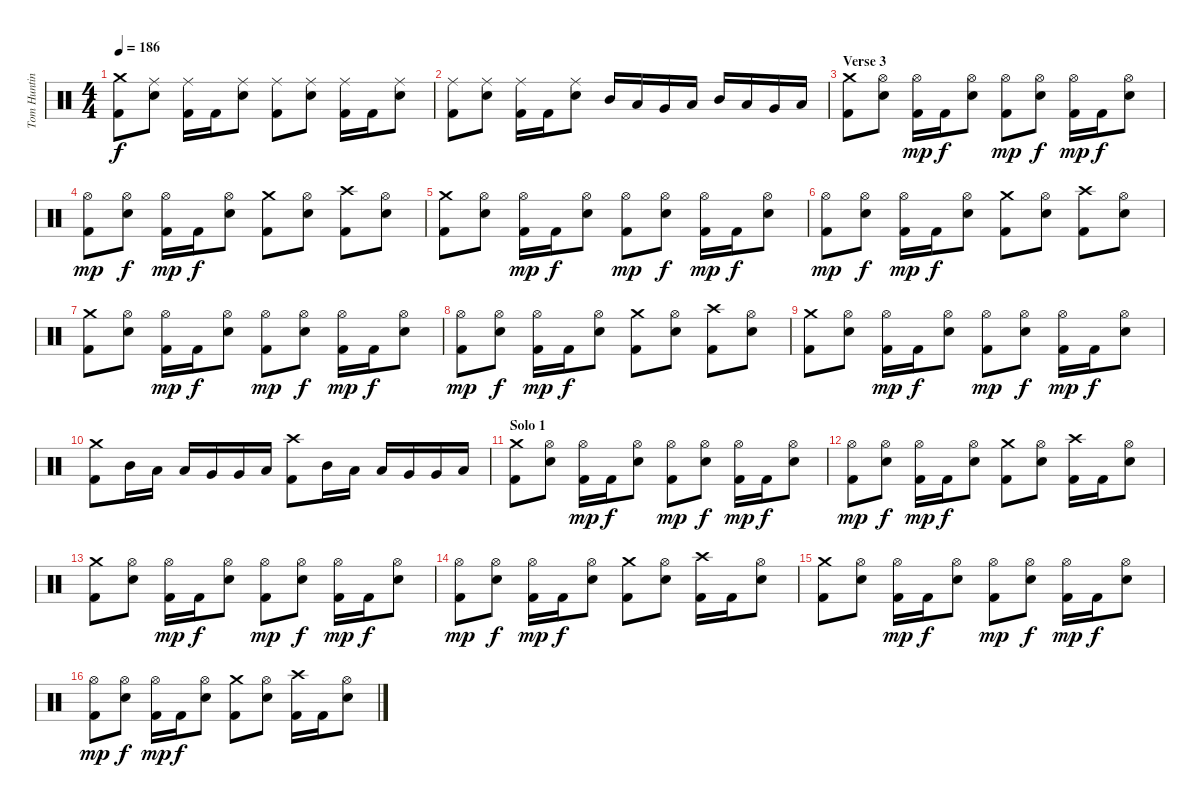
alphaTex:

\track ("Tom Hunting" "Tom Huntin") {instrument percussion}
\staff {score}
\articulation defaults
\ts (4 4)
\tempo 186
\clef neutral
\ks c
("Kick (hit) 2" "Crash medium (hit)").8{dy f} ("Ride (middle)" "Snare (hit) 2").8 ("Kick (hit) 2" "Ride (middle)").16 "Kick (hit) 2".16 ("Ride (middle)" "Snare (hit) 2").8 ("Kick (hit) 2" "Ride (middle)").8 ("Ride (middle)" "Snare (hit) 2").8 ("Kick (hit) 2" "Ride (middle)").16 "Kick (hit) 2".16 ("Ride (middle)" "Snare (hit) 2").8 |
("Kick (hit) 2" "Ride (middle)").8 ("Ride (middle)" "Snare (hit) 2").8 ("Kick (hit) 2" "Ride (middle)").16 "Kick (hit) 2".16 ("Ride (middle)" "Snare (hit) 2").8 "Mid Tom (hit)".16 "Low Tom (hit)".16 "Very Low Tom (hit)".16 "Low Floor Tom (hit)".16 "Mid Tom (hit)".16 "Low Tom (hit)".16 "Very Low Tom (hit)".16 "Low Floor Tom (hit)".16 |
\section ("" "Verse 3")
("Kick (hit) 2" "Crash medium (hit)").8 ("Hi-Hat (open)" "Snare (hit) 2").8 ("Kick (hit) 2" "Hi-Hat (open)").16{dy mp} "Kick (hit) 2".16{dy f} ("Hi-Hat (open)" "Snare (hit) 2").8 ("Kick (hit) 2" "Hi-Hat (open)").8{dy mp} ("Hi-Hat (open)" "Snare (hit) 2").8{dy f} ("Kick (hit) 2" "Hi-Hat (open)").16{dy mp} "Kick (hit) 2".16{dy f} ("Hi-Hat (open)" "Snare (hit) 2").8 |
("Kick (hit) 2" "Hi-Hat (open)").8{dy mp} ("Hi-Hat (open)" "Snare (hit) 2").8{dy f} ("Kick (hit) 2" "Hi-Hat (open)").16{dy mp} "Kick (hit) 2".16{dy f} ("Hi-Hat (open)" "Snare (hit) 2").8 ("Kick (hit) 2" "Crash medium (hit)").8 ("Hi-Hat (open)" "Snare (hit) 2").8 ("Kick (hit) 2" "Crash high (hit)").8 ("Hi-Hat (open)" "Snare (hit) 2").8 |
("Kick (hit) 2" "Crash medium (hit)").8 ("Hi-Hat (open)" "Snare (hit) 2").8 ("Kick (hit) 2" "Hi-Hat (open)").16{dy mp} "Kick (hit) 2".16{dy f} ("Hi-Hat (open)" "Snare (hit) 2").8 ("Kick (hit) 2" "Hi-Hat (open)").8{dy mp} ("Hi-Hat (open)" "Snare (hit) 2").8{dy f} ("Kick (hit) 2" "Hi-Hat (open)").16{dy mp} "Kick (hit) 2".16{dy f} ("Hi-Hat (open)" "Snare (hit) 2").8 |
("Kick (hit) 2" "Hi-Hat (open)").8{dy mp} ("Hi-Hat (open)" "Snare (hit) 2").8{dy f} ("Kick (hit) 2" "Hi-Hat (open)").16{dy mp} "Kick (hit) 2".16{dy f} ("Hi-Hat (open)" "Snare (hit) 2").8 ("Kick (hit) 2" "Crash medium (hit)").8 ("Hi-Hat (open)" "Snare (hit) 2").8 ("Kick (hit) 2" "Crash high (hit)").8 ("Hi-Hat (open)" "Snare (hit) 2").8 |
("Kick (hit) 2" "Crash medium (hit)").8 ("Hi-Hat (open)" "Snare (hit) 2").8 ("Kick (hit) 2" "Hi-Hat (open)").16{dy mp} "Kick (hit) 2".16{dy f} ("Hi-Hat (open)" "Snare (hit) 2").8 ("Kick (hit) 2" "Hi-Hat (open)").8{dy mp} ("Hi-Hat (open)" "Snare (hit) 2").8{dy f} ("Kick (hit) 2" "Hi-Hat (open)").16{dy mp} "Kick (hit) 2".16{dy f} ("Hi-Hat (open)" "Snare (hit) 2").8 |
("Kick (hit) 2" "Hi-Hat (open)").8{dy mp} ("Hi-Hat (open)" "Snare (hit) 2").8{dy f} ("Kick (hit) 2" "Hi-Hat (open)").16{dy mp} "Kick (hit) 2".16{dy f} ("Hi-Hat (open)" "Snare (hit) 2").8 ("Kick (hit) 2" "Crash medium (hit)").8 ("Hi-Hat (open)" "Snare (hit) 2").8 ("Kick (hit) 2" "Crash high (hit)").8 ("Hi-Hat (open)" "Snare (hit) 2").8 |
("Kick (hit) 2" "Crash medium (hit)").8 ("Hi-Hat (open)" "Snare (hit) 2").8 ("Kick (hit) 2" "Hi-Hat (open)").16{dy mp} "Kick (hit) 2".16{dy f} ("Hi-Hat (open)" "Snare (hit) 2").8 ("Kick (hit) 2" "Hi-Hat (open)").8{dy mp} ("Hi-Hat (open)" "Snare (hit) 2").8{dy f} ("Kick (hit) 2" "Hi-Hat (open)").16{dy mp} "Kick (hit) 2".16{dy f} ("Hi-Hat (open)" "Snare (hit) 2").8 |
("Kick (hit) 2" "Crash medium (hit)").8 "Mid Tom (hit)".16 "Low Tom (hit)".16 "Low Tom (hit)".16 "Very Low Tom (hit)".16 "Very Low Tom (hit)".16 "Low Floor Tom (hit)".16 ("Kick (hit) 2" "Crash high (hit)").8 "Mid Tom (hit)".16 "Low Tom (hit)".16 "Low Tom (hit)".16 "Very Low Tom (hit)".16 "Very Low Tom (hit)".16 "Low Floor Tom (hit)".16 |
\section ("" "Solo 1")
("Kick (hit) 2" "Crash medium (hit)").8 ("Hi-Hat (open)" "Snare (hit) 2").8 ("Kick (hit) 2" "Hi-Hat (open)").16{dy mp} "Kick (hit) 2".16{dy f} ("Hi-Hat (open)" "Snare (hit) 2").8 ("Kick (hit) 2" "Hi-Hat (open)").8{dy mp} ("Hi-Hat (open)" "Snare (hit) 2").8{dy f} ("Kick (hit) 2" "Hi-Hat (open)").16{dy mp} "Kick (hit) 2".16{dy f} ("Hi-Hat (open)" "Snare (hit) 2").8 |
("Kick (hit) 2" "Hi-Hat (open)").8{dy mp} ("Hi-Hat (open)" "Snare (hit) 2").8{dy f} ("Kick (hit) 2" "Hi-Hat (open)").16{dy mp} "Kick (hit) 2".16{dy f} ("Hi-Hat (open)" "Snare (hit) 2").8 ("Kick (hit) 2" "Crash medium (hit)").8 ("Hi-Hat (open)" "Snare (hit) 2").8 ("Kick (hit) 2" "Crash high (hit)").16 "Kick (hit) 2".16 ("Hi-Hat (open)" "Snare (hit) 2").8 |
("Kick (hit) 2" "Crash medium (hit)").8 ("Hi-Hat (open)" "Snare (hit) 2").8 ("Kick (hit) 2" "Hi-Hat (open)").16{dy mp} "Kick (hit) 2".16{dy f} ("Hi-Hat (open)" "Snare (hit) 2").8 ("Kick (hit) 2" "Hi-Hat (open)").8{dy mp} ("Hi-Hat (open)" "Snare (hit) 2").8{dy f} ("Kick (hit) 2" "Hi-Hat (open)").16{dy mp} "Kick (hit) 2".16{dy f} ("Hi-Hat (open)" "Snare (hit) 2").8 |
("Kick (hit) 2" "Hi-Hat (open)").8{dy mp} ("Hi-Hat (open)" "Snare (hit) 2").8{dy f} ("Kick (hit) 2" "Hi-Hat (open)").16{dy mp} "Kick (hit) 2".16{dy f} ("Hi-Hat (open)" "Snare (hit) 2").8 ("Kick (hit) 2" "Crash medium (hit)").8 ("Hi-Hat (open)" "Snare (hit) 2").8 ("Kick (hit) 2" "Crash high (hit)").16 "Kick (hit) 2".16 ("Hi-Hat (open)" "Snare (hit) 2").8 |
("Kick (hit) 2" "Crash medium (hit)").8 ("Hi-Hat (open)" "Snare (hit) 2").8 ("Kick (hit) 2" "Hi-Hat (open)").16{dy mp} "Kick (hit) 2".16{dy f} ("Hi-Hat (open)" "Snare (hit) 2").8 ("Kick (hit) 2" "Hi-Hat (open)").8{dy mp} ("Hi-Hat (open)" "Snare (hit) 2").8{dy f} ("Kick (hit) 2" "Hi-Hat (open)").16{dy mp} "Kick (hit) 2".16{dy f} ("Hi-Hat (open)" "Snare (hit) 2").8 |
("Kick (hit) 2" "Hi-Hat (open)").8{dy mp} ("Hi-Hat (open)" "Snare (hit) 2").8{dy f} ("Kick (hit) 2" "Hi-Hat (open)").16{dy mp} "Kick (hit) 2".16{dy f} ("Hi-Hat (open)" "Snare (hit) 2").8 ("Kick (hit) 2" "Crash medium (hit)").8 ("Hi-Hat (open)" "Snare (hit) 2").8 ("Kick (hit) 2" "Crash high (hit)").16 "Kick (hit) 2".16 ("Hi-Hat (open)" "Snare (hit) 2").8
